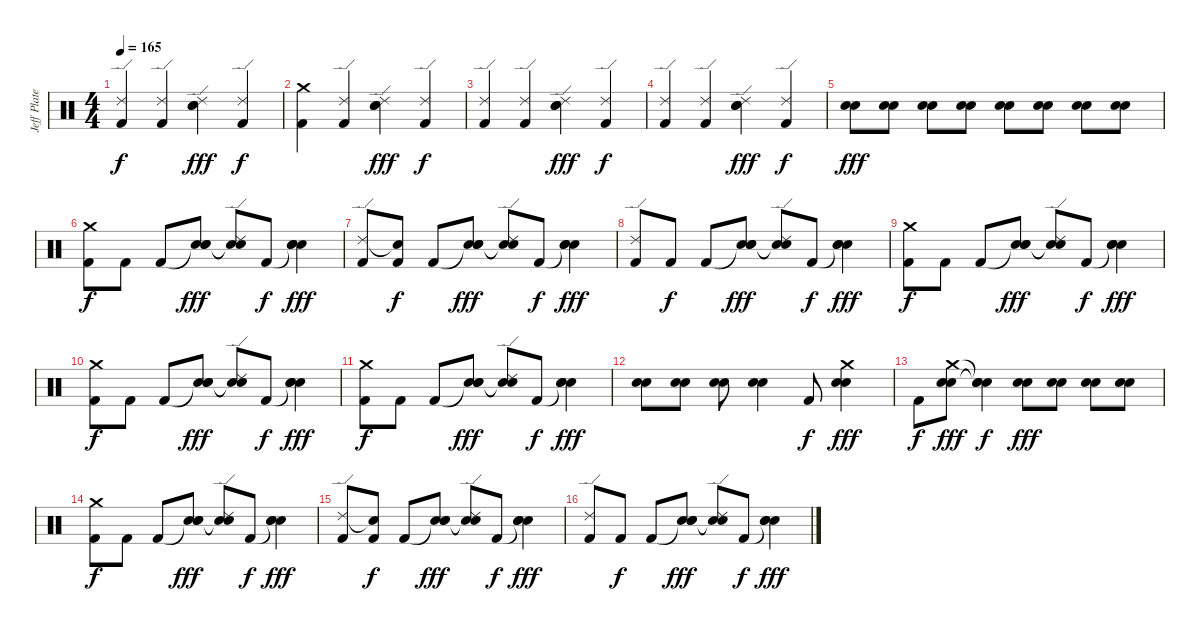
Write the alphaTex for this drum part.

\track ("Jeff Plate" "Jeff Plate") {instrument percussion}
\staff {score}
\articulation defaults
\ts (4 4)
\tempo 165
\clef neutral
\ks c
("Ride (edge) 2" "Kick (hit) 2").4{dy f} ("Ride (edge) 2" "Kick (hit) 2").4 ("Ride (edge) 2" "Electric Snare (hit)" "Electric Snare (hit)").4{dy fff} ("Ride (edge) 2" "Kick (hit) 2").4{dy f} |
("Crash medium (hit)" "Kick (hit) 2").4 ("Ride (edge) 2" "Kick (hit) 2").4 ("Ride (edge) 2" "Electric Snare (hit)" "Electric Snare (hit)").4{dy fff} ("Ride (edge) 2" "Kick (hit) 2").4{dy f} |
("Ride (edge) 2" "Kick (hit) 2").4 ("Ride (edge) 2" "Kick (hit) 2").4 ("Ride (edge) 2" "Electric Snare (hit)" "Electric Snare (hit)").4{dy fff} ("Ride (edge) 2" "Kick (hit) 2").4{dy f} |
("Ride (edge) 2" "Kick (hit) 2").4 ("Ride (edge) 2" "Kick (hit) 2").4 ("Ride (edge) 2" "Electric Snare (hit)" "Electric Snare (hit)").4{dy fff} ("Ride (edge) 2" "Kick (hit) 2").4{dy f} |
("Electric Snare (hit)" "Electric Snare (hit)").8{dy fff} ("Electric Snare (hit)" "Electric Snare (hit)").8 ("Electric Snare (hit)" "Electric Snare (hit)").8 ("Electric Snare (hit)" "Electric Snare (hit)").8 ("Electric Snare (hit)" "Electric Snare (hit)").8 ("Electric Snare (hit)" "Electric Snare (hit)").8 ("Electric Snare (hit)" "Electric Snare (hit)").8 ("Electric Snare (hit)" "Electric Snare (hit)").8 |
("Crash medium (hit)" "Kick (hit) 2").8{dy f} "Kick (hit) 2".8 "Kick (hit) 2".8 ("Snare (hit)"{t} "Electric Snare (hit)" "Electric Snare (hit)").8{dy fff} ("Ride (edge) 2" "Snare (hit)"{t} "Snare (hit)"{t}).8 "Kick (hit) 2".8{dy f} ("Snare (hit)"{t} "Electric Snare (hit)" "Electric Snare (hit)").4{dy fff} |
("Ride (edge) 2" "Kick (hit) 2").8 ("Snare (hit)"{t} "Kick (hit) 2").8{dy f} "Kick (hit) 2".8 ("Snare (hit)"{t} "Electric Snare (hit)" "Electric Snare (hit)").8{dy fff} ("Ride (edge) 2" "Snare (hit)"{t} "Snare (hit)"{t}).8 "Kick (hit) 2".8{dy f} ("Snare (hit)"{t} "Electric Snare (hit)" "Electric Snare (hit)").4{dy fff} |
("Ride (edge) 2" "Kick (hit) 2").8 "Kick (hit) 2".8{dy f} "Kick (hit) 2".8 ("Snare (hit)"{t} "Electric Snare (hit)" "Electric Snare (hit)").8{dy fff} ("Ride (edge) 2" "Snare (hit)"{t} "Snare (hit)"{t}).8 "Kick (hit) 2".8{dy f} ("Snare (hit)"{t} "Electric Snare (hit)" "Electric Snare (hit)").4{dy fff} |
("Crash medium (hit)" "Kick (hit) 2").8{dy f} "Kick (hit) 2".8 "Kick (hit) 2".8 ("Snare (hit)"{t} "Electric Snare (hit)" "Electric Snare (hit)").8{dy fff} ("Ride (edge) 2" "Snare (hit)"{t} "Snare (hit)"{t}).8 "Kick (hit) 2".8{dy f} ("Snare (hit)"{t} "Electric Snare (hit)" "Electric Snare (hit)").4{dy fff} |
("Crash medium (hit)" "Kick (hit) 2").8{dy f} "Kick (hit) 2".8 "Kick (hit) 2".8 ("Snare (hit)"{t} "Electric Snare (hit)" "Electric Snare (hit)").8{dy fff} ("Ride (edge) 2" "Snare (hit)"{t} "Snare (hit)"{t}).8 "Kick (hit) 2".8{dy f} ("Snare (hit)"{t} "Electric Snare (hit)" "Electric Snare (hit)").4{dy fff} |
("Crash medium (hit)" "Kick (hit) 2").8{dy f} "Kick (hit) 2".8 "Kick (hit) 2".8 ("Snare (hit)"{t} "Electric Snare (hit)" "Electric Snare (hit)").8{dy fff} ("Ride (edge) 2" "Snare (hit)"{t} "Snare (hit)"{t}).8 "Kick (hit) 2".8{dy f} ("Snare (hit)"{t} "Electric Snare (hit)" "Electric Snare (hit)").4{dy fff} |
("Electric Snare (hit)" "Electric Snare (hit)").8 ("Electric Snare (hit)" "Electric Snare (hit)").8 ("Electric Snare (hit)" "Electric Snare (hit)").8 ("Electric Snare (hit)" "Electric Snare (hit)").4 "Kick (hit) 2".8{dy f} ("Crash medium (hit)" "Electric Snare (hit)" "Electric Snare (hit)").4{dy fff} |
"Kick (hit) 2".8{dy f} ("Crash medium (hit)" "Electric Snare (hit)" "Electric Snare (hit)").8{dy fff} ("Snare (hit)"{t} "Snare (hit)"{t} "Snare (hit)"{t}).4{dy f} ("Electric Snare (hit)" "Electric Snare (hit)").8{dy fff} ("Electric Snare (hit)" "Electric Snare (hit)").8 ("Electric Snare (hit)" "Electric Snare (hit)").8 ("Electric Snare (hit)" "Electric Snare (hit)").8 |
("Crash medium (hit)" "Kick (hit) 2").8{dy f} "Kick (hit) 2".8 "Kick (hit) 2".8 ("Snare (hit)"{t} "Electric Snare (hit)" "Electric Snare (hit)").8{dy fff} ("Ride (edge) 2" "Snare (hit)"{t} "Snare (hit)"{t}).8 "Kick (hit) 2".8{dy f} ("Snare (hit)"{t} "Electric Snare (hit)" "Electric Snare (hit)").4{dy fff} |
("Ride (edge) 2" "Kick (hit) 2").8 ("Snare (hit)"{t} "Kick (hit) 2").8{dy f} "Kick (hit) 2".8 ("Snare (hit)"{t} "Electric Snare (hit)" "Electric Snare (hit)").8{dy fff} ("Ride (edge) 2" "Snare (hit)"{t} "Snare (hit)"{t}).8 "Kick (hit) 2".8{dy f} ("Snare (hit)"{t} "Electric Snare (hit)" "Electric Snare (hit)").4{dy fff} |
("Ride (edge) 2" "Kick (hit) 2").8 "Kick (hit) 2".8{dy f} "Kick (hit) 2".8 ("Snare (hit)"{t} "Electric Snare (hit)" "Electric Snare (hit)").8{dy fff} ("Ride (edge) 2" "Snare (hit)"{t} "Snare (hit)"{t}).8 "Kick (hit) 2".8{dy f} ("Snare (hit)"{t} "Electric Snare (hit)" "Electric Snare (hit)").4{dy fff}
